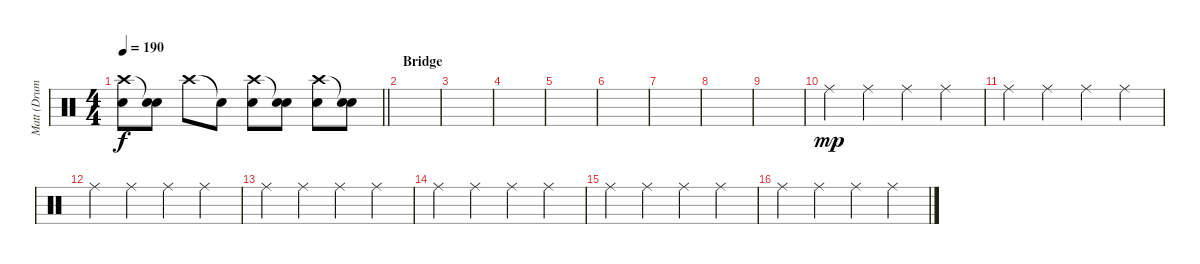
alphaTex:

\track ("Matt (Drums)" "Matt (Drum") {instrument percussion}
\staff {score}
\articulation defaults
\ts (4 4)
\tempo 190
\clef neutral
\barLineRight lightlight
\ks c
("Crash high (hit)" "Snare (hit) 2").8{dy f} ("Snare (hit)"{t} "Snare (hit) 2").8 "Crash high (hit)".8 "Snare (hit)"{t}.8 ("Crash high (hit)" "Snare (hit) 2").8 ("Snare (hit)"{t} "Snare (hit) 2").8 ("Crash high (hit)" "Snare (hit) 2").8 ("Snare (hit)"{t} "Snare (hit) 2").8 |
\section ("" "Bridge")
|
|
|
|
|
|
|
|
"Ride (middle)".4{dy mp} "Ride (middle)".4 "Ride (middle)".4 "Ride (middle)".4 |
"Ride (middle)".4 "Ride (middle)".4 "Ride (middle)".4 "Ride (middle)".4 |
"Ride (middle)".4 "Ride (middle)".4 "Ride (middle)".4 "Ride (middle)".4 |
"Ride (middle)".4 "Ride (middle)".4 "Ride (middle)".4 "Ride (middle)".4 |
"Ride (middle)".4 "Ride (middle)".4 "Ride (middle)".4 "Ride (middle)".4 |
"Ride (middle)".4 "Ride (middle)".4 "Ride (middle)".4 "Ride (middle)".4 |
"Ride (middle)".4 "Ride (middle)".4 "Ride (middle)".4 "Ride (middle)".4
